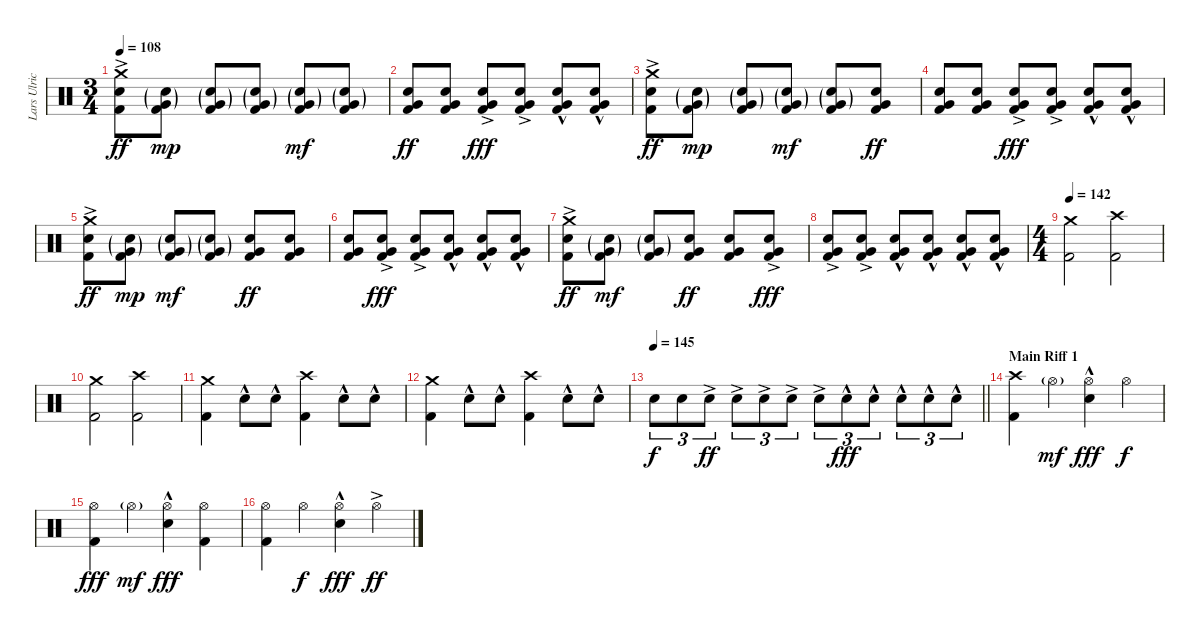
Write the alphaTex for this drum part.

\track ("Lars Ulrich (Drums)" "Lars Ulric") {instrument percussion}
\staff {score}
\articulation defaults
\ts (3 4)
\tempo 108
\clef neutral
\ks c
("Crash medium (hit)" "Electric Snare (hit)"{ac} "Kick (hit) 2").8{dy ff volume 12} ("Electric Snare (hit)"{g} "Very Low Tom (hit)"{g} "Kick (hit) 2").8{dy mp} ("Electric Snare (hit)"{g} "Very Low Tom (hit)"{g} "Kick (hit) 2").8 ("Electric Snare (hit)"{g} "Very Low Tom (hit)"{g} "Kick (hit) 2").8 ("Electric Snare (hit)"{g} "Very Low Tom (hit)"{g} "Kick (hit) 2").8{dy mf} ("Electric Snare (hit)"{g} "Very Low Tom (hit)"{g} "Kick (hit) 2").8 |
("Electric Snare (hit)" "Very Low Tom (hit)" "Kick (hit) 2").8{dy ff} ("Electric Snare (hit)" "Very Low Tom (hit)" "Kick (hit) 2").8 ("Electric Snare (hit)"{ac} "Very Low Tom (hit)"{ac} "Kick (hit) 2").8{dy fff} ("Electric Snare (hit)"{ac} "Very Low Tom (hit)"{ac} "Kick (hit) 2").8 ("Electric Snare (hit)"{hac} "Very Low Tom (hit)"{hac} "Kick (hit) 2").8 ("Electric Snare (hit)"{hac} "Very Low Tom (hit)"{hac} "Kick (hit) 2").8 |
("Crash medium (hit)" "Electric Snare (hit)"{ac} "Kick (hit) 2").8{dy ff} ("Electric Snare (hit)"{g} "Very Low Tom (hit)"{g} "Kick (hit) 2").8{dy mp} ("Electric Snare (hit)"{g} "Very Low Tom (hit)"{g} "Kick (hit) 2").8 ("Electric Snare (hit)"{g} "Very Low Tom (hit)"{g} "Kick (hit) 2").8{dy mf} ("Electric Snare (hit)"{g} "Very Low Tom (hit)"{g} "Kick (hit) 2").8 ("Electric Snare (hit)" "Very Low Tom (hit)" "Kick (hit) 2").8{dy ff} |
("Electric Snare (hit)" "Very Low Tom (hit)" "Kick (hit) 2").8 ("Electric Snare (hit)" "Very Low Tom (hit)" "Kick (hit) 2").8 ("Electric Snare (hit)"{ac} "Very Low Tom (hit)"{ac} "Kick (hit) 2").8{dy fff} ("Electric Snare (hit)"{ac} "Very Low Tom (hit)"{ac} "Kick (hit) 2").8 ("Electric Snare (hit)"{hac} "Very Low Tom (hit)"{hac} "Kick (hit) 2").8 ("Electric Snare (hit)"{hac} "Very Low Tom (hit)"{hac} "Kick (hit) 2").8 |
("Crash medium (hit)" "Electric Snare (hit)"{ac} "Kick (hit) 2").8{dy ff} ("Electric Snare (hit)"{g} "Very Low Tom (hit)"{g} "Kick (hit) 2").8{dy mp} ("Electric Snare (hit)"{g} "Very Low Tom (hit)"{g} "Kick (hit) 2").8{dy mf} ("Electric Snare (hit)"{g} "Very Low Tom (hit)"{g} "Kick (hit) 2").8 ("Electric Snare (hit)" "Very Low Tom (hit)" "Kick (hit) 2").8{dy ff} ("Electric Snare (hit)" "Very Low Tom (hit)" "Kick (hit) 2").8 |
("Electric Snare (hit)" "Very Low Tom (hit)" "Kick (hit) 2").8 ("Electric Snare (hit)"{ac} "Very Low Tom (hit)"{ac} "Kick (hit) 2").8{dy fff} ("Electric Snare (hit)"{ac} "Very Low Tom (hit)"{ac} "Kick (hit) 2").8 ("Electric Snare (hit)"{hac} "Very Low Tom (hit)"{hac} "Kick (hit) 2").8 ("Electric Snare (hit)"{hac} "Very Low Tom (hit)"{hac} "Kick (hit) 2").8 ("Electric Snare (hit)"{hac} "Very Low Tom (hit)"{hac} "Kick (hit) 2").8 |
("Crash medium (hit)" "Electric Snare (hit)"{ac} "Kick (hit) 2").8{dy ff} ("Electric Snare (hit)"{g} "Very Low Tom (hit)"{g} "Kick (hit) 2").8{dy mf} ("Electric Snare (hit)"{g} "Very Low Tom (hit)"{g} "Kick (hit) 2").8 ("Electric Snare (hit)" "Very Low Tom (hit)" "Kick (hit) 2").8{dy ff} ("Electric Snare (hit)" "Very Low Tom (hit)" "Kick (hit) 2").8 ("Electric Snare (hit)"{ac} "Very Low Tom (hit)"{ac} "Kick (hit) 2").8{dy fff} |
("Electric Snare (hit)"{ac} "Very Low Tom (hit)"{ac} "Kick (hit) 2").8 ("Electric Snare (hit)"{ac} "Very Low Tom (hit)"{ac} "Kick (hit) 2").8 ("Electric Snare (hit)"{hac} "Very Low Tom (hit)"{hac} "Kick (hit) 2").8 ("Electric Snare (hit)"{hac} "Very Low Tom (hit)"{hac} "Kick (hit) 2").8 ("Electric Snare (hit)"{hac} "Very Low Tom (hit)"{hac} "Kick (hit) 2").8 ("Electric Snare (hit)"{hac} "Very Low Tom (hit)"{hac} "Kick (hit) 2").8 |
\ts (4 4)
\tempo 142
("Crash medium (hit)" "Kick (hit) 2").2 ("Crash high (hit)" "Kick (hit) 2").2 |
("Crash medium (hit)" "Kick (hit) 2").2 ("Crash high (hit)" "Kick (hit) 2").2 |
("Crash medium (hit)" "Kick (hit) 2").4 "Electric Snare (hit)"{hac}.8 "Electric Snare (hit)"{hac}.8 ("Crash high (hit)" "Kick (hit) 2").4 "Electric Snare (hit)"{hac}.8 "Electric Snare (hit)"{hac}.8 |
("Crash medium (hit)" "Kick (hit) 2").4 "Electric Snare (hit)"{hac}.8 "Electric Snare (hit)"{hac}.8 ("Crash high (hit)" "Kick (hit) 2").4 "Electric Snare (hit)"{hac}.8 "Electric Snare (hit)"{hac}.8 |
\tempo 145
\barLineRight lightlight "Electric Snare (hit)".8{tu (3 2) dy f} "Electric Snare (hit)".8{tu (3 2)} "Electric Snare (hit)"{ac}.8{tu (3 2) dy ff} "Electric Snare (hit)"{ac}.8{tu (3 2)} "Electric Snare (hit)"{ac}.8{tu (3 2)} "Electric Snare (hit)"{ac}.8{tu (3 2)} "Electric Snare (hit)"{ac}.8{tu (3 2)} "Electric Snare (hit)"{hac}.8{tu (3 2) dy fff} "Electric Snare (hit)"{hac}.8{tu (3 2)} "Electric Snare (hit)"{hac}.8{tu (3 2)} "Electric Snare (hit)"{hac}.8{tu (3 2)} "Electric Snare (hit)"{hac}.8{tu (3 2)}
|
\section ("" "Main Riff 1")
("Crash high (hit)" "Kick (hit) 2").4 "Hi-Hat (open)"{g}.4{dy mf} ("Hi-Hat (open)"{hac} "Electric Snare (hit)"{hac}).4{dy fff} "Hi-Hat (open)".4{dy f} |
("Hi-Hat (open)" "Kick (hit) 2").4{dy fff} "Hi-Hat (open)"{g}.4{dy mf} ("Hi-Hat (open)"{hac} "Electric Snare (hit)"{hac}).4{dy fff} ("Hi-Hat (open)" "Kick (hit) 2").4 |
("Hi-Hat (open)" "Kick (hit) 2").4 "Hi-Hat (open)".4{dy f} ("Hi-Hat (open)"{hac} "Electric Snare (hit)"{hac}).4{dy fff} "Hi-Hat (open)"{ac}.4{dy ff}
